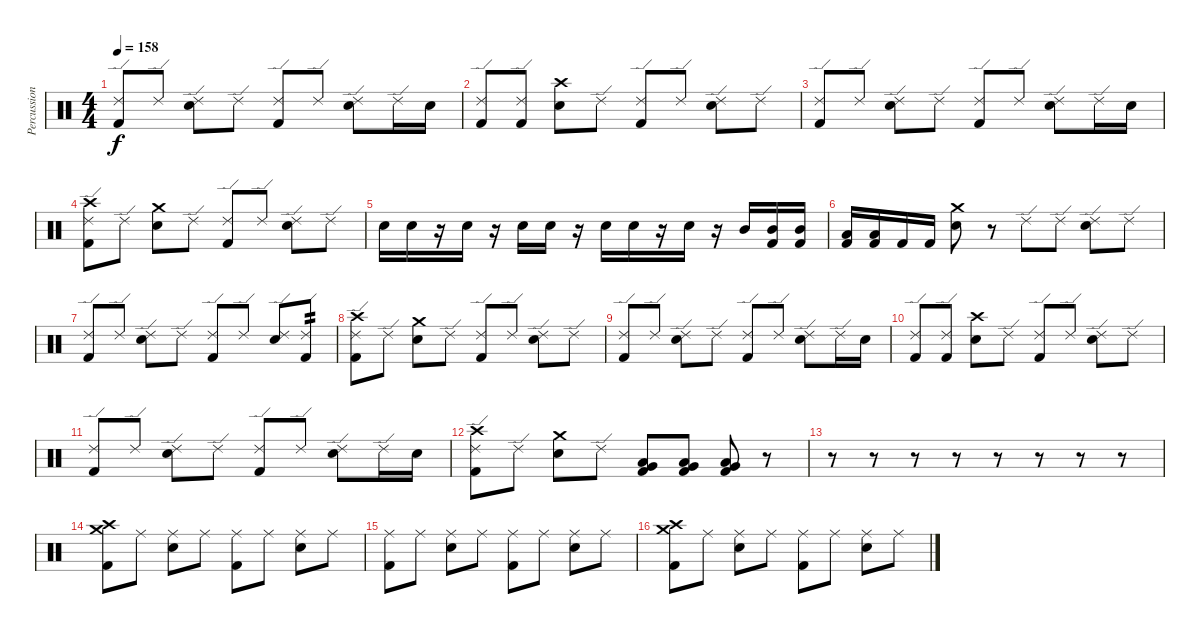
\track ("Percussion" "Percussion") {instrument percussion}
\staff {score}
\articulation defaults
\ts (4 4)
\tempo 158
\clef neutral
\ks c
("Ride (edge) 2" "Kick (hit) 2").8{dy f} "Ride (edge) 2".8 ("Ride (edge) 2" "Electric Snare (hit)").8 "Ride (edge) 2".8 ("Ride (edge) 2" "Kick (hit) 2").8 "Ride (edge) 2".8 ("Ride (edge) 2" "Electric Snare (hit)").8 "Ride (edge) 2".16 "Electric Snare (hit)".16 |
("Ride (edge) 2" "Kick (hit) 2").8 ("Ride (edge) 2" "Kick (hit) 2").8 ("Crash high (hit)" "Electric Snare (hit)").8 "Ride (edge) 2".8 ("Ride (edge) 2" "Kick (hit) 2").8 "Ride (edge) 2".8 ("Ride (edge) 2" "Electric Snare (hit)").8 "Ride (edge) 2".8 |
("Ride (edge) 2" "Kick (hit) 2").8 "Ride (edge) 2".8 ("Ride (edge) 2" "Electric Snare (hit)").8 "Ride (edge) 2".8 ("Ride (edge) 2" "Kick (hit) 2").8 "Ride (edge) 2".8 ("Ride (edge) 2" "Electric Snare (hit)").8 "Ride (edge) 2".16 "Electric Snare (hit)".16 |
("Ride (edge) 2" "Crash high (hit)" "Kick (hit) 2").8 "Ride (edge) 2".8 ("Crash medium (hit)" "Electric Snare (hit)").8 "Ride (edge) 2".8 ("Ride (edge) 2" "Kick (hit) 2").8 "Ride (edge) 2".8 ("Ride (edge) 2" "Electric Snare (hit)").8 "Ride (edge) 2".8 |
"Electric Snare (hit)".16 "Electric Snare (hit)".16 r.16 "Electric Snare (hit)".16 r.16 "Electric Snare (hit)".16 "Electric Snare (hit)".16 r.16 "Electric Snare (hit)".16 "Electric Snare (hit)".16 r.16 "Electric Snare (hit)".16 r.16 "Mid Tom (hit)".16 ("Mid Tom (hit)" "Kick (hit) 2").16 ("Mid Tom (hit)" "Kick (hit) 2").16 |
("Low Tom (hit)" "Kick (hit) 2").16 ("Low Tom (hit)" "Kick (hit) 2").16 "Kick (hit) 2".16 "Kick (hit) 2".16 ("Crash medium (hit)" "Electric Snare (hit)").8 r.8 "Ride (edge) 2".8 "Ride (edge) 2".8 ("Ride (edge) 2" "Electric Snare (hit)").8 "Ride (edge) 2".8 |
("Ride (edge) 2" "Kick (hit) 2").8 "Ride (edge) 2".8 ("Ride (edge) 2" "Electric Snare (hit)").8 "Ride (edge) 2".8 ("Ride (edge) 2" "Kick (hit) 2").8 "Ride (edge) 2".8 ("Ride (edge) 2" "Electric Snare (hit)").8 ("Ride (edge) 2" "Kick (hit) 2").8{tp 2} |
("Ride (edge) 2" "Crash high (hit)" "Kick (hit) 2").8 "Ride (edge) 2".8 ("Crash medium (hit)" "Electric Snare (hit)").8 "Ride (edge) 2".8 ("Ride (edge) 2" "Kick (hit) 2").8 "Ride (edge) 2".8 ("Ride (edge) 2" "Electric Snare (hit)").8 "Ride (edge) 2".8 |
("Ride (edge) 2" "Kick (hit) 2").8 "Ride (edge) 2".8 ("Ride (edge) 2" "Electric Snare (hit)").8 "Ride (edge) 2".8 ("Ride (edge) 2" "Kick (hit) 2").8 "Ride (edge) 2".8 ("Ride (edge) 2" "Electric Snare (hit)").8 "Ride (edge) 2".16 "Electric Snare (hit)".16 |
("Ride (edge) 2" "Kick (hit) 2").8 ("Ride (edge) 2" "Kick (hit) 2").8 ("Crash high (hit)" "Electric Snare (hit)").8 "Ride (edge) 2".8 ("Ride (edge) 2" "Kick (hit) 2").8 "Ride (edge) 2".8 ("Ride (edge) 2" "Electric Snare (hit)").8 "Ride (edge) 2".8 |
("Ride (edge) 2" "Kick (hit) 2").8 "Ride (edge) 2".8 ("Ride (edge) 2" "Electric Snare (hit)").8 "Ride (edge) 2".8 ("Ride (edge) 2" "Kick (hit) 2").8 "Ride (edge) 2".8 ("Ride (edge) 2" "Electric Snare (hit)").8 "Ride (edge) 2".16 "Electric Snare (hit)".16 |
("Ride (edge) 2" "Crash high (hit)" "Kick (hit) 2").8 "Ride (edge) 2".8 ("Crash medium (hit)" "Electric Snare (hit)").8 "Ride (edge) 2".8 ("Low Tom (hit)" "Very Low Tom (hit)" "Kick (hit) 2").8 ("Low Tom (hit)" "Very Low Tom (hit)" "Kick (hit) 2").8 ("Low Tom (hit)" "Very Low Tom (hit)" "Kick (hit) 2").8 r.8 |
r.8 r.8 r.8 r.8 r.8 r.8 r.8 r.8 |
("Crash high (hit)" "Crash medium (hit)" "Kick (hit) 2").8 "Ride (middle)".8 ("Ride (middle)" "Electric Snare (hit)").8 "Ride (middle)".8 ("Ride (middle)" "Kick (hit) 2").8 "Ride (middle)".8 ("Ride (middle)" "Electric Snare (hit)").8 "Ride (middle)".8 |
("Ride (middle)" "Kick (hit) 2").8 "Ride (middle)".8 ("Ride (middle)" "Electric Snare (hit)").8 "Ride (middle)".8 ("Ride (middle)" "Kick (hit) 2").8 "Ride (middle)".8 ("Ride (middle)" "Electric Snare (hit)").8 "Ride (middle)".8 |
("Crash high (hit)" "Crash medium (hit)" "Kick (hit) 2").8 "Ride (middle)".8 ("Ride (middle)" "Electric Snare (hit)").8 "Ride (middle)".8 ("Ride (middle)" "Kick (hit) 2").8 "Ride (middle)".8 ("Ride (middle)" "Electric Snare (hit)").8 "Ride (middle)".8
